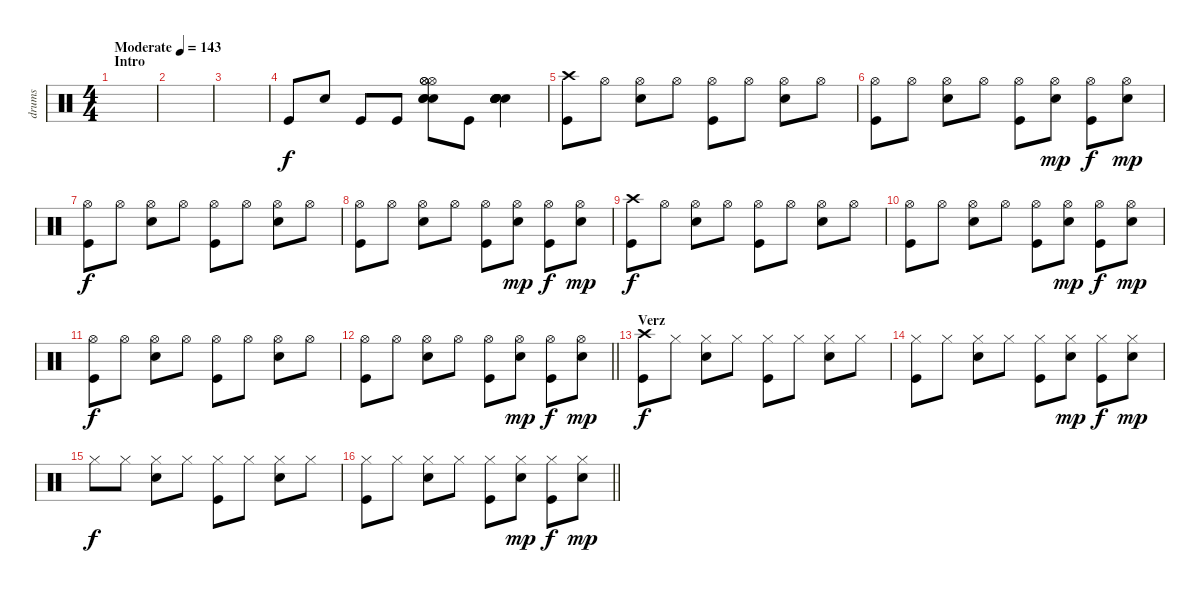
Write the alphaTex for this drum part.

\track ("drums" "drums") {instrument percussion}
\staff {score}
\articulation defaults
\ts (4 4)
\section ("" "Intro")
\tempo (143 "Moderate")
\clef neutral
\ks c
|
|
|
"Kick (hit)".8 "Snare (hit) 2".8 "Kick (hit)".8 "Kick (hit)".8 ("Hi-Hat (open)" "Hi-Hat (open)" "Snare (hit) 2" "Snare (hit) 2" "Snare (hit) 2" "Hi-Hat (open)").8 "Kick (hit)".8 ("Snare (hit) 2" "Snare (hit) 2" "Snare (hit) 2" "Snare (hit) 2" "Snare (hit) 2" "Snare (hit) 2").4 |
("Crash high (hit)" "Kick (hit)").8 "Hi-Hat (open)".8 ("Hi-Hat (open)" "Snare (hit) 2").8 "Hi-Hat (open)".8 ("Hi-Hat (open)" "Kick (hit)").8 "Hi-Hat (open)".8 ("Hi-Hat (open)" "Snare (hit) 2").8 "Hi-Hat (open)".8 |
("Hi-Hat (open)" "Kick (hit)").8 "Hi-Hat (open)".8 ("Hi-Hat (open)" "Snare (hit) 2").8 "Hi-Hat (open)".8 ("Hi-Hat (open)" "Kick (hit)").8 ("Hi-Hat (open)" "Snare (hit) 2").8{dy mp} ("Hi-Hat (open)" "Kick (hit)").8{dy f} ("Hi-Hat (open)" "Snare (hit) 2").8{dy mp} |
("Hi-Hat (open)" "Kick (hit)").8{dy f} "Hi-Hat (open)".8 ("Hi-Hat (open)" "Snare (hit) 2").8 "Hi-Hat (open)".8 ("Hi-Hat (open)" "Kick (hit)").8 "Hi-Hat (open)".8 ("Hi-Hat (open)" "Snare (hit) 2").8 "Hi-Hat (open)".8 |
("Hi-Hat (open)" "Kick (hit)").8 "Hi-Hat (open)".8 ("Hi-Hat (open)" "Snare (hit) 2").8 "Hi-Hat (open)".8 ("Hi-Hat (open)" "Kick (hit)").8 ("Hi-Hat (open)" "Snare (hit) 2").8{dy mp} ("Hi-Hat (open)" "Kick (hit)").8{dy f} ("Hi-Hat (open)" "Snare (hit) 2").8{dy mp} |
("Crash high (hit)" "Kick (hit)").8{dy f} "Hi-Hat (open)".8 ("Hi-Hat (open)" "Snare (hit) 2").8 "Hi-Hat (open)".8 ("Hi-Hat (open)" "Kick (hit)").8 "Hi-Hat (open)".8 ("Hi-Hat (open)" "Snare (hit) 2").8 "Hi-Hat (open)".8 |
("Hi-Hat (open)" "Kick (hit)").8 "Hi-Hat (open)".8 ("Hi-Hat (open)" "Snare (hit) 2").8 "Hi-Hat (open)".8 ("Hi-Hat (open)" "Kick (hit)").8 ("Hi-Hat (open)" "Snare (hit) 2").8{dy mp} ("Hi-Hat (open)" "Kick (hit)").8{dy f} ("Hi-Hat (open)" "Snare (hit) 2").8{dy mp} |
("Hi-Hat (open)" "Kick (hit)").8{dy f} "Hi-Hat (open)".8 ("Hi-Hat (open)" "Snare (hit) 2").8 "Hi-Hat (open)".8 ("Hi-Hat (open)" "Kick (hit)").8 "Hi-Hat (open)".8 ("Hi-Hat (open)" "Snare (hit) 2").8 "Hi-Hat (open)".8 |
\barLineRight lightlight
("Hi-Hat (open)" "Kick (hit)").8 "Hi-Hat (open)".8 ("Hi-Hat (open)" "Snare (hit) 2").8 "Hi-Hat (open)".8 ("Hi-Hat (open)" "Kick (hit)").8 ("Hi-Hat (open)" "Snare (hit) 2").8{dy mp} ("Hi-Hat (open)" "Kick (hit)").8{dy f} ("Hi-Hat (open)" "Snare (hit) 2").8{dy mp} |
\section ("" "Verz")
("Crash high (hit)" "Kick (hit)").8{dy f} "Hi-Hat (closed)".8 ("Hi-Hat (closed)" "Snare (hit) 2").8 "Hi-Hat (closed)".8 ("Hi-Hat (closed)" "Kick (hit)").8 "Hi-Hat (closed)".8 ("Hi-Hat (closed)" "Snare (hit) 2").8 "Hi-Hat (closed)".8 |
("Hi-Hat (closed)" "Kick (hit)").8 "Hi-Hat (closed)".8 ("Hi-Hat (closed)" "Snare (hit) 2").8 "Hi-Hat (closed)".8 ("Hi-Hat (closed)" "Kick (hit)").8 ("Hi-Hat (closed)" "Snare (hit) 2").8{dy mp} ("Hi-Hat (closed)" "Kick (hit)").8{dy f} ("Hi-Hat (closed)" "Snare (hit) 2").8{dy mp} |
"Hi-Hat (closed)".8{dy f} "Hi-Hat (closed)".8 ("Hi-Hat (closed)" "Snare (hit) 2").8 "Hi-Hat (closed)".8 ("Hi-Hat (closed)" "Kick (hit)").8 "Hi-Hat (closed)".8 ("Hi-Hat (closed)" "Snare (hit) 2").8 "Hi-Hat (closed)".8 |
\barLineRight lightlight
("Hi-Hat (closed)" "Kick (hit)").8 "Hi-Hat (closed)".8 ("Hi-Hat (closed)" "Snare (hit) 2").8 "Hi-Hat (closed)".8 ("Hi-Hat (closed)" "Kick (hit)").8 ("Hi-Hat (closed)" "Snare (hit) 2").8{dy mp} ("Hi-Hat (closed)" "Kick (hit)").8{dy f} ("Hi-Hat (closed)" "Snare (hit) 2").8{dy mp}
